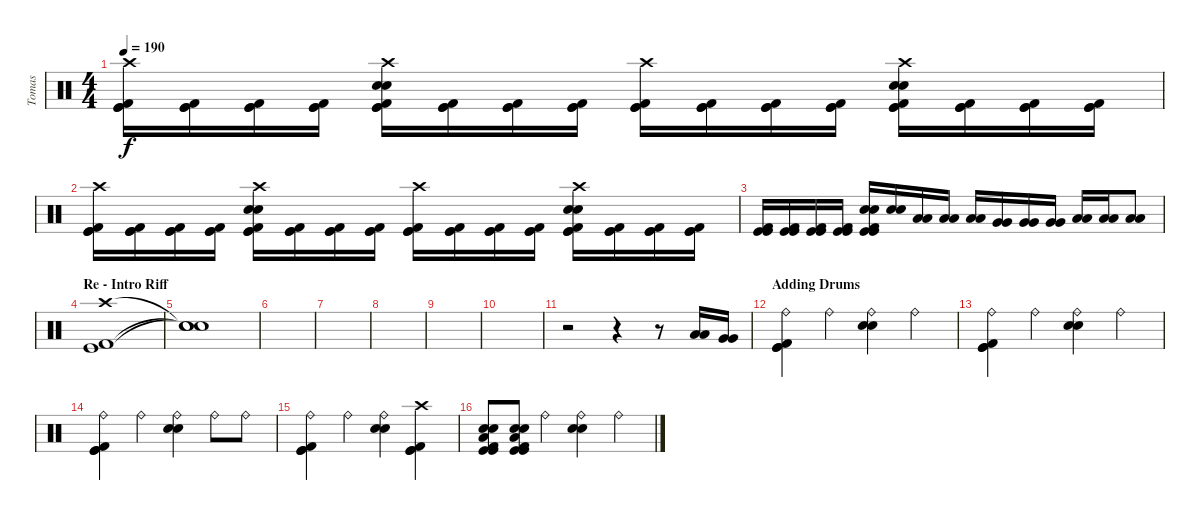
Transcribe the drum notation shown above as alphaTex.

\track ("Tomas" "Tomas") {instrument percussion}
\staff {score}
\articulation defaults
\ts (4 4)
\tempo 190
\clef neutral
\ks c
("Crash high (hit)" "Kick (hit)" "Kick (hit)" "Kick (hit) 2").16{dy f} ("Kick (hit)" "Kick (hit)" "Kick (hit) 2").16 ("Kick (hit)" "Kick (hit)" "Kick (hit) 2").16 ("Kick (hit)" "Kick (hit)" "Kick (hit) 2").16 ("Crash high (hit)" "Kick (hit)" "Electric Snare (hit)" "Electric Snare (hit)" "Kick (hit)" "Kick (hit) 2").16 ("Kick (hit)" "Kick (hit)" "Kick (hit) 2").16 ("Kick (hit)" "Kick (hit)" "Kick (hit) 2").16 ("Kick (hit)" "Kick (hit)" "Kick (hit) 2").16 ("Crash high (hit)" "Kick (hit)" "Kick (hit)" "Kick (hit) 2").16 ("Kick (hit)" "Kick (hit)" "Kick (hit) 2").16 ("Kick (hit)" "Kick (hit)" "Kick (hit) 2").16 ("Kick (hit)" "Kick (hit)" "Kick (hit) 2").16 ("Crash high (hit)" "Kick (hit)" "Electric Snare (hit)" "Electric Snare (hit)" "Kick (hit)" "Kick (hit) 2").16 ("Kick (hit)" "Kick (hit)" "Kick (hit) 2").16 ("Kick (hit)" "Kick (hit)" "Kick (hit) 2").16 ("Kick (hit)" "Kick (hit)" "Kick (hit) 2").16 |
("Crash high (hit)" "Kick (hit)" "Kick (hit)" "Kick (hit) 2").16 ("Kick (hit)" "Kick (hit)" "Kick (hit) 2").16 ("Kick (hit)" "Kick (hit)" "Kick (hit) 2").16 ("Kick (hit)" "Kick (hit)" "Kick (hit) 2").16 ("Crash high (hit)" "Kick (hit)" "Electric Snare (hit)" "Electric Snare (hit)" "Kick (hit)" "Kick (hit) 2").16 ("Kick (hit)" "Kick (hit)" "Kick (hit) 2").16 ("Kick (hit)" "Kick (hit)" "Kick (hit) 2").16 ("Kick (hit)" "Kick (hit)" "Kick (hit) 2").16 ("Crash high (hit)" "Kick (hit)" "Kick (hit)" "Kick (hit) 2").16 ("Kick (hit)" "Kick (hit)" "Kick (hit) 2").16 ("Kick (hit)" "Kick (hit)" "Kick (hit) 2").16 ("Kick (hit)" "Kick (hit)" "Kick (hit) 2").16 ("Crash high (hit)" "Kick (hit)" "Electric Snare (hit)" "Electric Snare (hit)" "Kick (hit)" "Kick (hit) 2").16 ("Kick (hit)" "Kick (hit)" "Kick (hit) 2").16 ("Kick (hit)" "Kick (hit)" "Kick (hit) 2").16 ("Kick (hit)" "Kick (hit)" "Kick (hit) 2").16 |
("Kick (hit)" "Kick (hit)" "Kick (hit) 2").16 ("Kick (hit)" "Kick (hit)" "Kick (hit) 2").16 ("Kick (hit)" "Kick (hit)" "Kick (hit) 2").16 ("Kick (hit)" "Kick (hit)" "Kick (hit) 2").16 ("Kick (hit)" "Electric Snare (hit)" "Electric Snare (hit)" "Kick (hit)" "Kick (hit) 2").16 ("Electric Snare (hit)" "Electric Snare (hit)").16 ("Low Tom (hit)" "Low Tom (hit)").16 ("Low Tom (hit)" "Low Tom (hit)").16 ("Low Tom (hit)" "Low Tom (hit)").16 ("Very Low Tom (hit)" "Very Low Tom (hit)").16 ("Very Low Tom (hit)" "Very Low Tom (hit)").16 ("Very Low Tom (hit)" "Very Low Tom (hit)").16 ("Low Floor Tom (hit)" "Low Floor Tom (hit)").16 ("Low Floor Tom (hit)" "Low Floor Tom (hit)").16 ("Low Floor Tom (hit)" "Low Floor Tom (hit)").8 |
\section ("" "Re - Intro Riff")
("Kick (hit) 2" "Kick (hit)" "Crash high (hit)").1 |
("Snare (hit)"{t} "Snare (hit)"{t} "Snare (hit)"{t}).1 |
|
|
|
|
|
r.2 r.4 r.8 ("Low Tom (hit)" "Low Tom (hit)").16 ("Very Low Tom (hit)" "Very Low Tom (hit)").16 |
\section ("" "Adding Drums")
("Ride (bell)" "Kick (hit)" "Kick (hit)" "Kick (hit) 2").4 "Ride (bell)".4 ("Ride (bell)" "Electric Snare (hit)" "Electric Snare (hit)").4 "Ride (bell)".4 |
("Ride (bell)" "Kick (hit)" "Kick (hit)" "Kick (hit) 2").4 "Ride (bell)".4 ("Ride (bell)" "Electric Snare (hit)" "Electric Snare (hit)").4 "Ride (bell)".4 |
("Ride (bell)" "Kick (hit)" "Kick (hit)" "Kick (hit) 2").4 "Ride (bell)".4 ("Ride (bell)" "Electric Snare (hit)" "Electric Snare (hit)").4 "Ride (bell)".8 "Ride (bell)".8 |
("Ride (bell)" "Kick (hit)" "Kick (hit)" "Kick (hit) 2").4 "Ride (bell)".4 ("Ride (bell)" "Electric Snare (hit)" "Electric Snare (hit)").4 ("Crash high (hit)" "Kick (hit)" "Kick (hit)" "Kick (hit) 2").4 |
("Low Floor Tom (hit)" "Kick (hit)" "Kick (hit)" "Electric Snare (hit)" "Electric Snare (hit)" "Kick (hit) 2").8 ("Low Floor Tom (hit)" "Kick (hit)" "Kick (hit)" "Electric Snare (hit)" "Electric Snare (hit)" "Kick (hit) 2").8 "Ride (bell)".4 ("Ride (bell)" "Electric Snare (hit)" "Electric Snare (hit)").4 "Ride (bell)".4
